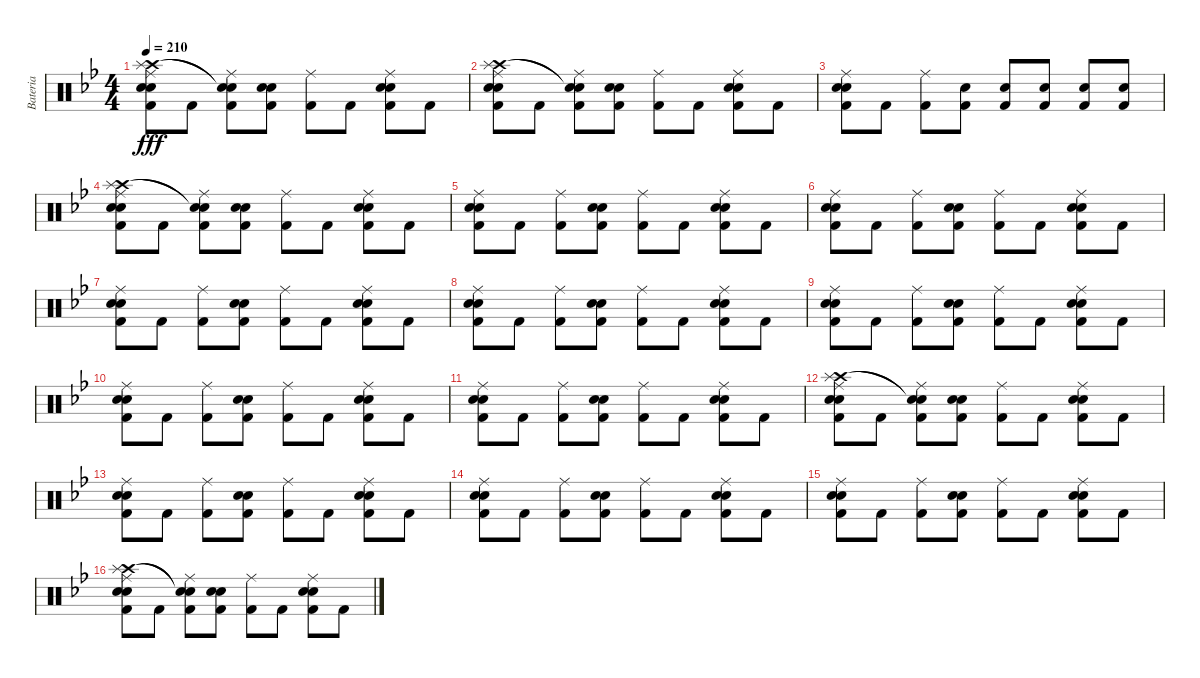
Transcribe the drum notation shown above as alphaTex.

\track ("Bateria" "Bateria") {instrument percussion}
\staff {score}
\articulation defaults
\ts (4 4)
\tempo 210
\clef neutral
\ks gminor
("Ride (middle)" "Crash high (hit)" "Splash (hit)" "Snare (hit) 2" "Kick (hit) 2" "Electric Snare (hit)").8{dy fff} "Kick (hit) 2".8 ("Ride (middle)" "Snare (hit)"{t} "Snare (hit)"{t} "Kick (hit) 2").8 ("Snare (hit) 2" "Kick (hit) 2" "Electric Snare (hit)").8 ("Ride (middle)" "Kick (hit) 2").8 "Kick (hit) 2".8 ("Ride (middle)" "Snare (hit) 2" "Kick (hit) 2" "Electric Snare (hit)").8 "Kick (hit) 2".8 |
("Ride (middle)" "Crash high (hit)" "Splash (hit)" "Snare (hit) 2" "Kick (hit) 2" "Electric Snare (hit)").8 "Kick (hit) 2".8 ("Ride (middle)" "Snare (hit)"{t} "Snare (hit)"{t} "Kick (hit) 2").8 ("Snare (hit) 2" "Kick (hit) 2" "Electric Snare (hit)").8 ("Ride (middle)" "Kick (hit) 2").8 "Kick (hit) 2".8 ("Ride (middle)" "Snare (hit) 2" "Kick (hit) 2" "Electric Snare (hit)").8 "Kick (hit) 2".8 |
("Ride (middle)" "Snare (hit) 2" "Kick (hit) 2" "Electric Snare (hit)").8 "Kick (hit) 2".8 ("Ride (middle)" "Kick (hit) 2").8 ("Snare (hit) 2" "Kick (hit) 2").8 ("Snare (hit) 2" "Kick (hit) 2").8 ("Snare (hit) 2" "Kick (hit) 2").8 ("Snare (hit) 2" "Kick (hit) 2").8 ("Snare (hit) 2" "Kick (hit) 2").8 |
("Ride (middle)" "Crash high (hit)" "Splash (hit)" "Snare (hit) 2" "Electric Snare (hit)" "Kick (hit) 2").8 "Kick (hit) 2".8 ("Ride (middle)" "Snare (hit)"{t} "Snare (hit)"{t} "Kick (hit) 2").8 ("Snare (hit) 2" "Electric Snare (hit)" "Kick (hit) 2").8 ("Ride (middle)" "Kick (hit) 2").8 "Kick (hit) 2".8 ("Ride (middle)" "Snare (hit) 2" "Electric Snare (hit)" "Kick (hit) 2").8 "Kick (hit) 2".8 |
("Ride (middle)" "Snare (hit) 2" "Kick (hit) 2" "Electric Snare (hit)").8 "Kick (hit) 2".8 ("Ride (middle)" "Kick (hit) 2").8 ("Snare (hit) 2" "Kick (hit) 2" "Electric Snare (hit)").8 ("Ride (middle)" "Kick (hit) 2").8 "Kick (hit) 2".8 ("Ride (middle)" "Snare (hit) 2" "Kick (hit) 2" "Electric Snare (hit)").8 "Kick (hit) 2".8 |
("Ride (middle)" "Snare (hit) 2" "Kick (hit) 2" "Electric Snare (hit)").8 "Kick (hit) 2".8 ("Ride (middle)" "Kick (hit) 2").8 ("Snare (hit) 2" "Kick (hit) 2" "Electric Snare (hit)").8 ("Ride (middle)" "Kick (hit) 2").8 "Kick (hit) 2".8 ("Ride (middle)" "Snare (hit) 2" "Kick (hit) 2" "Electric Snare (hit)").8 "Kick (hit) 2".8 |
("Ride (middle)" "Snare (hit) 2" "Kick (hit) 2" "Electric Snare (hit)").8 "Kick (hit) 2".8 ("Ride (middle)" "Kick (hit) 2").8 ("Snare (hit) 2" "Kick (hit) 2" "Electric Snare (hit)").8 ("Ride (middle)" "Kick (hit) 2").8 "Kick (hit) 2".8 ("Ride (middle)" "Snare (hit) 2" "Kick (hit) 2" "Electric Snare (hit)").8 "Kick (hit) 2".8 |
("Ride (middle)" "Snare (hit) 2" "Kick (hit) 2" "Electric Snare (hit)").8 "Kick (hit) 2".8 ("Ride (middle)" "Kick (hit) 2").8 ("Snare (hit) 2" "Kick (hit) 2" "Electric Snare (hit)").8 ("Ride (middle)" "Kick (hit) 2").8 "Kick (hit) 2".8 ("Ride (middle)" "Snare (hit) 2" "Kick (hit) 2" "Electric Snare (hit)").8 "Kick (hit) 2".8 |
("Ride (middle)" "Snare (hit) 2" "Kick (hit) 2" "Electric Snare (hit)").8 "Kick (hit) 2".8 ("Ride (middle)" "Kick (hit) 2").8 ("Snare (hit) 2" "Kick (hit) 2" "Electric Snare (hit)").8 ("Ride (middle)" "Kick (hit) 2").8 "Kick (hit) 2".8 ("Ride (middle)" "Snare (hit) 2" "Kick (hit) 2" "Electric Snare (hit)").8 "Kick (hit) 2".8 |
("Ride (middle)" "Snare (hit) 2" "Kick (hit) 2" "Electric Snare (hit)").8 "Kick (hit) 2".8 ("Ride (middle)" "Kick (hit) 2").8 ("Snare (hit) 2" "Kick (hit) 2" "Electric Snare (hit)").8 ("Ride (middle)" "Kick (hit) 2").8 "Kick (hit) 2".8 ("Ride (middle)" "Snare (hit) 2" "Kick (hit) 2" "Electric Snare (hit)").8 "Kick (hit) 2".8 |
("Ride (middle)" "Snare (hit) 2" "Kick (hit) 2" "Electric Snare (hit)").8 "Kick (hit) 2".8 ("Ride (middle)" "Kick (hit) 2").8 ("Snare (hit) 2" "Kick (hit) 2" "Electric Snare (hit)").8 ("Ride (middle)" "Kick (hit) 2").8 "Kick (hit) 2".8 ("Ride (middle)" "Snare (hit) 2" "Kick (hit) 2" "Electric Snare (hit)").8 "Kick (hit) 2".8 |
("Ride (middle)" "Crash high (hit)" "Splash (hit)" "Snare (hit) 2" "Kick (hit) 2" "Electric Snare (hit)").8 "Kick (hit) 2".8 ("Ride (middle)" "Snare (hit)"{t} "Snare (hit)"{t} "Kick (hit) 2").8 ("Snare (hit) 2" "Kick (hit) 2" "Electric Snare (hit)").8 ("Ride (middle)" "Kick (hit) 2").8 "Kick (hit) 2".8 ("Ride (middle)" "Snare (hit) 2" "Kick (hit) 2" "Electric Snare (hit)").8 "Kick (hit) 2".8 |
("Ride (middle)" "Snare (hit) 2" "Kick (hit) 2" "Electric Snare (hit)").8 "Kick (hit) 2".8 ("Ride (middle)" "Kick (hit) 2").8 ("Snare (hit) 2" "Kick (hit) 2" "Electric Snare (hit)").8 ("Ride (middle)" "Kick (hit) 2").8 "Kick (hit) 2".8 ("Ride (middle)" "Snare (hit) 2" "Kick (hit) 2" "Electric Snare (hit)").8 "Kick (hit) 2".8 |
("Ride (middle)" "Snare (hit) 2" "Kick (hit) 2" "Electric Snare (hit)").8 "Kick (hit) 2".8 ("Ride (middle)" "Kick (hit) 2").8 ("Snare (hit) 2" "Kick (hit) 2" "Electric Snare (hit)").8 ("Ride (middle)" "Kick (hit) 2").8 "Kick (hit) 2".8 ("Ride (middle)" "Snare (hit) 2" "Kick (hit) 2" "Electric Snare (hit)").8 "Kick (hit) 2".8 |
("Ride (middle)" "Snare (hit) 2" "Kick (hit) 2" "Electric Snare (hit)").8 "Kick (hit) 2".8 ("Ride (middle)" "Kick (hit) 2").8 ("Snare (hit) 2" "Kick (hit) 2" "Electric Snare (hit)").8 ("Ride (middle)" "Kick (hit) 2").8 "Kick (hit) 2".8 ("Ride (middle)" "Snare (hit) 2" "Kick (hit) 2" "Electric Snare (hit)").8 "Kick (hit) 2".8 |
("Ride (middle)" "Crash high (hit)" "Splash (hit)" "Snare (hit) 2" "Kick (hit) 2" "Electric Snare (hit)").8 "Kick (hit) 2".8 ("Ride (middle)" "Snare (hit)"{t} "Snare (hit)"{t} "Kick (hit) 2").8 ("Snare (hit) 2" "Kick (hit) 2" "Electric Snare (hit)").8 ("Ride (middle)" "Kick (hit) 2").8 "Kick (hit) 2".8 ("Ride (middle)" "Snare (hit) 2" "Kick (hit) 2" "Electric Snare (hit)").8 "Kick (hit) 2".8
